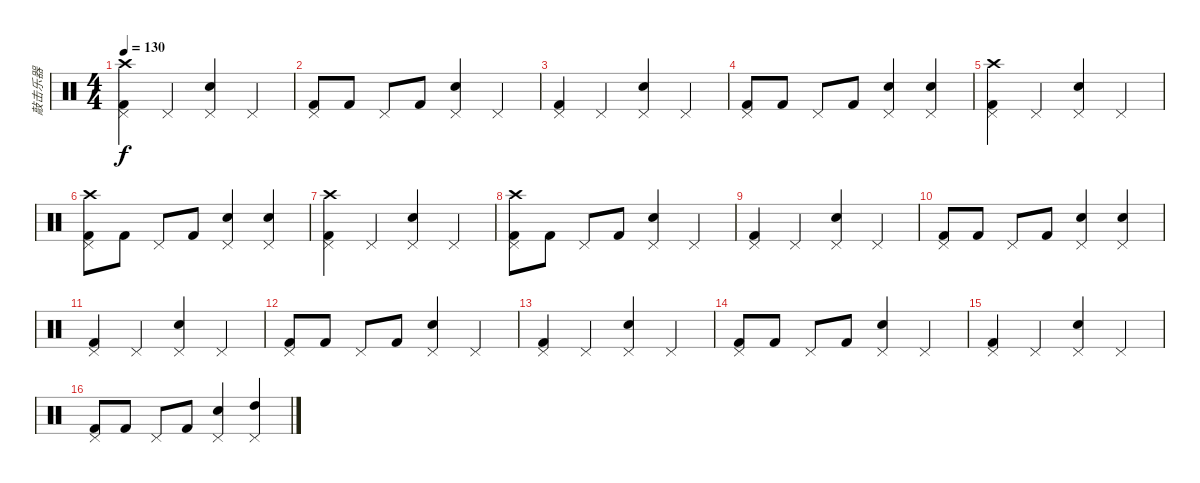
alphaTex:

\track ("敲击乐器" "敲击乐器") {instrument percussion}
\staff {score}
\articulation defaults
\ts (4 4)
\tempo 130
\clef neutral
\ks c
("Crash high (hit)" "Kick (hit) 2" "Pedal Hi-Hat (hit)").4{dy f} "Pedal Hi-Hat (hit)".4 ("Pedal Hi-Hat (hit)" "Electric Snare (hit)").4 "Pedal Hi-Hat (hit)".4 |
("Pedal Hi-Hat (hit)" "Kick (hit) 2").8 "Kick (hit) 2".8 "Pedal Hi-Hat (hit)".8 "Kick (hit) 2".8 ("Pedal Hi-Hat (hit)" "Electric Snare (hit)").4 "Pedal Hi-Hat (hit)".4 |
("Kick (hit) 2" "Pedal Hi-Hat (hit)").4 "Pedal Hi-Hat (hit)".4 ("Pedal Hi-Hat (hit)" "Electric Snare (hit)").4 "Pedal Hi-Hat (hit)".4 |
("Pedal Hi-Hat (hit)" "Kick (hit) 2").8 "Kick (hit) 2".8 "Pedal Hi-Hat (hit)".8 "Kick (hit) 2".8 ("Pedal Hi-Hat (hit)" "Electric Snare (hit)").4 ("Pedal Hi-Hat (hit)" "Electric Snare (hit)").4 |
("Crash high (hit)" "Kick (hit) 2" "Pedal Hi-Hat (hit)").4 "Pedal Hi-Hat (hit)".4 ("Pedal Hi-Hat (hit)" "Electric Snare (hit)").4 "Pedal Hi-Hat (hit)".4 |
("Crash high (hit)" "Pedal Hi-Hat (hit)" "Kick (hit) 2").8 "Kick (hit) 2".8 "Pedal Hi-Hat (hit)".8 "Kick (hit) 2".8 ("Pedal Hi-Hat (hit)" "Electric Snare (hit)").4 ("Pedal Hi-Hat (hit)" "Electric Snare (hit)").4 |
("Crash high (hit)" "Kick (hit) 2" "Pedal Hi-Hat (hit)").4 "Pedal Hi-Hat (hit)".4 ("Pedal Hi-Hat (hit)" "Electric Snare (hit)").4 "Pedal Hi-Hat (hit)".4 |
("Crash high (hit)" "Pedal Hi-Hat (hit)" "Kick (hit) 2").8 "Kick (hit) 2".8 "Pedal Hi-Hat (hit)".8 "Kick (hit) 2".8 ("Pedal Hi-Hat (hit)" "Electric Snare (hit)").4 "Pedal Hi-Hat (hit)".4 |
("Kick (hit) 2" "Pedal Hi-Hat (hit)").4 "Pedal Hi-Hat (hit)".4 ("Pedal Hi-Hat (hit)" "Electric Snare (hit)").4 "Pedal Hi-Hat (hit)".4 |
("Pedal Hi-Hat (hit)" "Kick (hit) 2").8 "Kick (hit) 2".8 "Pedal Hi-Hat (hit)".8 "Kick (hit) 2".8 ("Pedal Hi-Hat (hit)" "Electric Snare (hit)").4 ("Pedal Hi-Hat (hit)" "Electric Snare (hit)").4 |
("Kick (hit) 2" "Pedal Hi-Hat (hit)").4 "Pedal Hi-Hat (hit)".4 ("Pedal Hi-Hat (hit)" "Electric Snare (hit)").4 "Pedal Hi-Hat (hit)".4 |
("Pedal Hi-Hat (hit)" "Kick (hit) 2").8 "Kick (hit) 2".8 "Pedal Hi-Hat (hit)".8 "Kick (hit) 2".8 ("Pedal Hi-Hat (hit)" "Electric Snare (hit)").4 "Pedal Hi-Hat (hit)".4 |
("Kick (hit) 2" "Pedal Hi-Hat (hit)").4 "Pedal Hi-Hat (hit)".4 ("Pedal Hi-Hat (hit)" "Electric Snare (hit)").4 "Pedal Hi-Hat (hit)".4 |
("Pedal Hi-Hat (hit)" "Kick (hit) 2").8 "Kick (hit) 2".8 "Pedal Hi-Hat (hit)".8 "Kick (hit) 2".8 ("Pedal Hi-Hat (hit)" "Electric Snare (hit)").4 "Pedal Hi-Hat (hit)".4 |
("Kick (hit) 2" "Pedal Hi-Hat (hit)").4 "Pedal Hi-Hat (hit)".4 ("Pedal Hi-Hat (hit)" "Electric Snare (hit)").4 "Pedal Hi-Hat (hit)".4 |
("Pedal Hi-Hat (hit)" "Kick (hit) 2").8 "Kick (hit) 2".8 "Pedal Hi-Hat (hit)".8 "Kick (hit) 2".8 ("Pedal Hi-Hat (hit)" "Electric Snare (hit)").4 ("Pedal Hi-Hat (hit)" "High Tom (hit)").4
